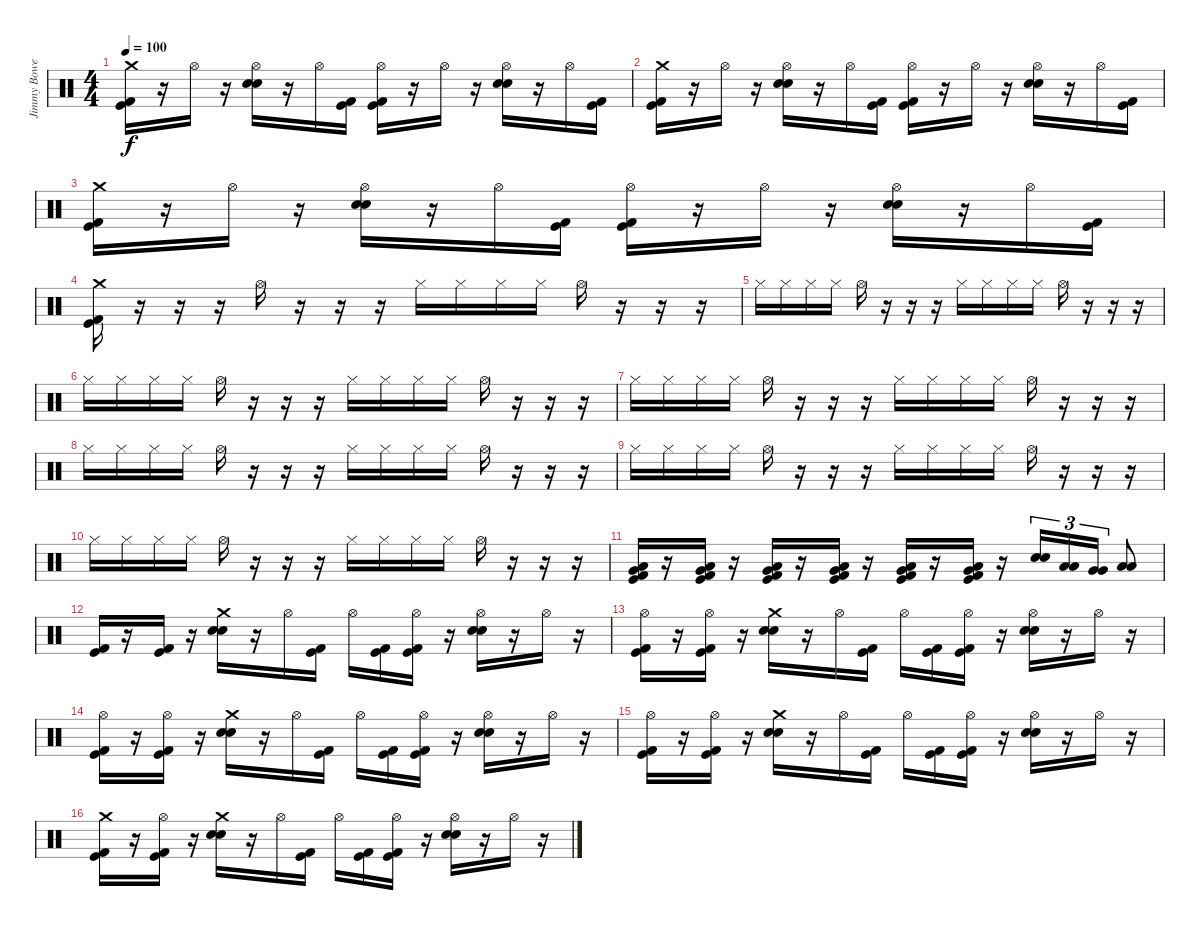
\track ("Jimmy Bower" "Jimmy Bowe") {instrument percussion}
\staff {score}
\articulation defaults
\ts (4 4)
\tempo 100
\clef neutral
\ks c
("Crash medium (hit)" "Kick (hit) 2" "Kick (hit)").16{dy f} r.16 "Hi-Hat (open)".16 r.16 ("Hi-Hat (open)" "Electric Snare (hit)" "Electric Snare (hit)").16 r.16 "Hi-Hat (open)".16 ("Kick (hit) 2" "Kick (hit)").16 ("Hi-Hat (open)" "Kick (hit) 2" "Kick (hit)").16 r.16 "Hi-Hat (open)".16 r.16 ("Hi-Hat (open)" "Electric Snare (hit)" "Electric Snare (hit)").16 r.16 "Hi-Hat (open)".16 ("Kick (hit) 2" "Kick (hit)").16 |
("Crash medium (hit)" "Kick (hit) 2" "Kick (hit)").16 r.16 "Hi-Hat (open)".16 r.16 ("Hi-Hat (open)" "Electric Snare (hit)" "Electric Snare (hit)").16 r.16 "Hi-Hat (open)".16 ("Kick (hit) 2" "Kick (hit)").16 ("Hi-Hat (open)" "Kick (hit) 2" "Kick (hit)").16 r.16 "Hi-Hat (open)".16 r.16 ("Hi-Hat (open)" "Electric Snare (hit)" "Electric Snare (hit)").16 r.16 "Hi-Hat (open)".16 ("Kick (hit) 2" "Kick (hit)").16 |
("Crash medium (hit)" "Kick (hit) 2" "Kick (hit)").16 r.16 "Hi-Hat (open)".16 r.16 ("Hi-Hat (open)" "Electric Snare (hit)" "Electric Snare (hit)").16 r.16 "Hi-Hat (open)".16 ("Kick (hit) 2" "Kick (hit)").16 ("Hi-Hat (open)" "Kick (hit) 2" "Kick (hit)").16 r.16 "Hi-Hat (open)".16 r.16 ("Hi-Hat (open)" "Electric Snare (hit)" "Electric Snare (hit)").16 r.16 "Hi-Hat (open)".16 ("Kick (hit) 2" "Kick (hit)").16 |
("Crash medium (hit)" "Kick (hit) 2" "Kick (hit)").16 r.16 r.16 r.16 "Hi-Hat (open)".16 r.16 r.16 r.16 "Hi-Hat (closed)".16 "Hi-Hat (closed)".16 "Hi-Hat (closed)".16 "Hi-Hat (closed)".16 "Hi-Hat (open)".16 r.16 r.16 r.16 |
"Hi-Hat (closed)".16 "Hi-Hat (closed)".16 "Hi-Hat (closed)".16 "Hi-Hat (closed)".16 "Hi-Hat (open)".16 r.16 r.16 r.16 "Hi-Hat (closed)".16 "Hi-Hat (closed)".16 "Hi-Hat (closed)".16 "Hi-Hat (closed)".16 "Hi-Hat (open)".16 r.16 r.16 r.16 |
"Hi-Hat (closed)".16 "Hi-Hat (closed)".16 "Hi-Hat (closed)".16 "Hi-Hat (closed)".16 "Hi-Hat (open)".16 r.16 r.16 r.16 "Hi-Hat (closed)".16 "Hi-Hat (closed)".16 "Hi-Hat (closed)".16 "Hi-Hat (closed)".16 "Hi-Hat (open)".16 r.16 r.16 r.16 |
"Hi-Hat (closed)".16 "Hi-Hat (closed)".16 "Hi-Hat (closed)".16 "Hi-Hat (closed)".16 "Hi-Hat (open)".16 r.16 r.16 r.16 "Hi-Hat (closed)".16 "Hi-Hat (closed)".16 "Hi-Hat (closed)".16 "Hi-Hat (closed)".16 "Hi-Hat (open)".16 r.16 r.16 r.16 |
"Hi-Hat (closed)".16 "Hi-Hat (closed)".16 "Hi-Hat (closed)".16 "Hi-Hat (closed)".16 "Hi-Hat (open)".16 r.16 r.16 r.16 "Hi-Hat (closed)".16 "Hi-Hat (closed)".16 "Hi-Hat (closed)".16 "Hi-Hat (closed)".16 "Hi-Hat (open)".16 r.16 r.16 r.16 |
"Hi-Hat (closed)".16 "Hi-Hat (closed)".16 "Hi-Hat (closed)".16 "Hi-Hat (closed)".16 "Hi-Hat (open)".16 r.16 r.16 r.16 "Hi-Hat (closed)".16 "Hi-Hat (closed)".16 "Hi-Hat (closed)".16 "Hi-Hat (closed)".16 "Hi-Hat (open)".16 r.16 r.16 r.16 |
"Hi-Hat (closed)".16 "Hi-Hat (closed)".16 "Hi-Hat (closed)".16 "Hi-Hat (closed)".16 "Hi-Hat (open)".16 r.16 r.16 r.16 "Hi-Hat (closed)".16 "Hi-Hat (closed)".16 "Hi-Hat (closed)".16 "Hi-Hat (closed)".16 "Hi-Hat (open)".16 r.16 r.16 r.16 |
("Low Floor Tom (hit)" "Very Low Tom (hit)" "Kick (hit) 2" "Kick (hit)").16 r.16 ("Low Floor Tom (hit)" "Very Low Tom (hit)" "Kick (hit) 2" "Kick (hit)").16 r.16 ("Low Floor Tom (hit)" "Very Low Tom (hit)" "Kick (hit) 2" "Kick (hit)").16 r.16 ("Low Floor Tom (hit)" "Very Low Tom (hit)" "Kick (hit) 2" "Kick (hit)").16 r.16 ("Low Floor Tom (hit)" "Very Low Tom (hit)" "Kick (hit) 2" "Kick (hit)").16 r.16 ("Low Floor Tom (hit)" "Very Low Tom (hit)" "Kick (hit) 2" "Kick (hit)").16 r.16 ("Electric Snare (hit)" "Electric Snare (hit)").16{tu (3 2)} ("Low Tom (hit)" "Low Tom (hit)").16{tu (3 2)} ("Very Low Tom (hit)" "Very Low Tom (hit)").16{tu (3 2)} ("Low Floor Tom (hit)" "Low Floor Tom (hit)").8 |
("Kick (hit) 2" "Kick (hit)").16 r.16 ("Kick (hit)" "Kick (hit) 2").16 r.16 ("Crash medium (hit)" "Electric Snare (hit)" "Electric Snare (hit)").16 r.16 "Hi-Hat (open)".16 ("Kick (hit) 2" "Kick (hit)").16 "Hi-Hat (open)".16 ("Kick (hit)" "Kick (hit) 2").16 ("Hi-Hat (open)" "Kick (hit)" "Kick (hit) 2").16 r.16 ("Hi-Hat (open)" "Electric Snare (hit)" "Electric Snare (hit)").16 r.16 "Hi-Hat (open)".16 r.16 |
("Hi-Hat (open)" "Kick (hit) 2" "Kick (hit)").16 r.16 ("Hi-Hat (open)" "Kick (hit)" "Kick (hit) 2").16 r.16 ("Crash medium (hit)" "Electric Snare (hit)" "Electric Snare (hit)").16 r.16 "Hi-Hat (open)".16 ("Kick (hit) 2" "Kick (hit)").16 "Hi-Hat (open)".16 ("Kick (hit)" "Kick (hit) 2").16 ("Hi-Hat (open)" "Kick (hit)" "Kick (hit) 2").16 r.16 ("Hi-Hat (open)" "Electric Snare (hit)" "Electric Snare (hit)").16 r.16 "Hi-Hat (open)".16 r.16 |
("Hi-Hat (open)" "Kick (hit) 2" "Kick (hit)").16 r.16 ("Hi-Hat (open)" "Kick (hit)" "Kick (hit) 2").16 r.16 ("Crash medium (hit)" "Electric Snare (hit)" "Electric Snare (hit)").16 r.16 "Hi-Hat (open)".16 ("Kick (hit) 2" "Kick (hit)").16 "Hi-Hat (open)".16 ("Kick (hit)" "Kick (hit) 2").16 ("Hi-Hat (open)" "Kick (hit)" "Kick (hit) 2").16 r.16 ("Hi-Hat (open)" "Electric Snare (hit)" "Electric Snare (hit)").16 r.16 "Hi-Hat (open)".16 r.16 |
("Hi-Hat (open)" "Kick (hit) 2" "Kick (hit)").16 r.16 ("Hi-Hat (open)" "Kick (hit)" "Kick (hit) 2").16 r.16 ("Crash medium (hit)" "Electric Snare (hit)" "Electric Snare (hit)").16 r.16 "Hi-Hat (open)".16 ("Kick (hit) 2" "Kick (hit)").16 "Hi-Hat (open)".16 ("Kick (hit)" "Kick (hit) 2").16 ("Hi-Hat (open)" "Kick (hit)" "Kick (hit) 2").16 r.16 ("Hi-Hat (open)" "Electric Snare (hit)" "Electric Snare (hit)").16 r.16 "Hi-Hat (open)".16 r.16 |
("Crash medium (hit)" "Kick (hit) 2" "Kick (hit)").16 r.16 ("Hi-Hat (open)" "Kick (hit)" "Kick (hit) 2").16 r.16 ("Crash medium (hit)" "Electric Snare (hit)" "Electric Snare (hit)").16 r.16 "Hi-Hat (open)".16 ("Kick (hit) 2" "Kick (hit)").16 "Hi-Hat (open)".16 ("Kick (hit)" "Kick (hit) 2").16 ("Hi-Hat (open)" "Kick (hit)" "Kick (hit) 2").16 r.16 ("Hi-Hat (open)" "Electric Snare (hit)" "Electric Snare (hit)").16 r.16 "Hi-Hat (open)".16 r.16
